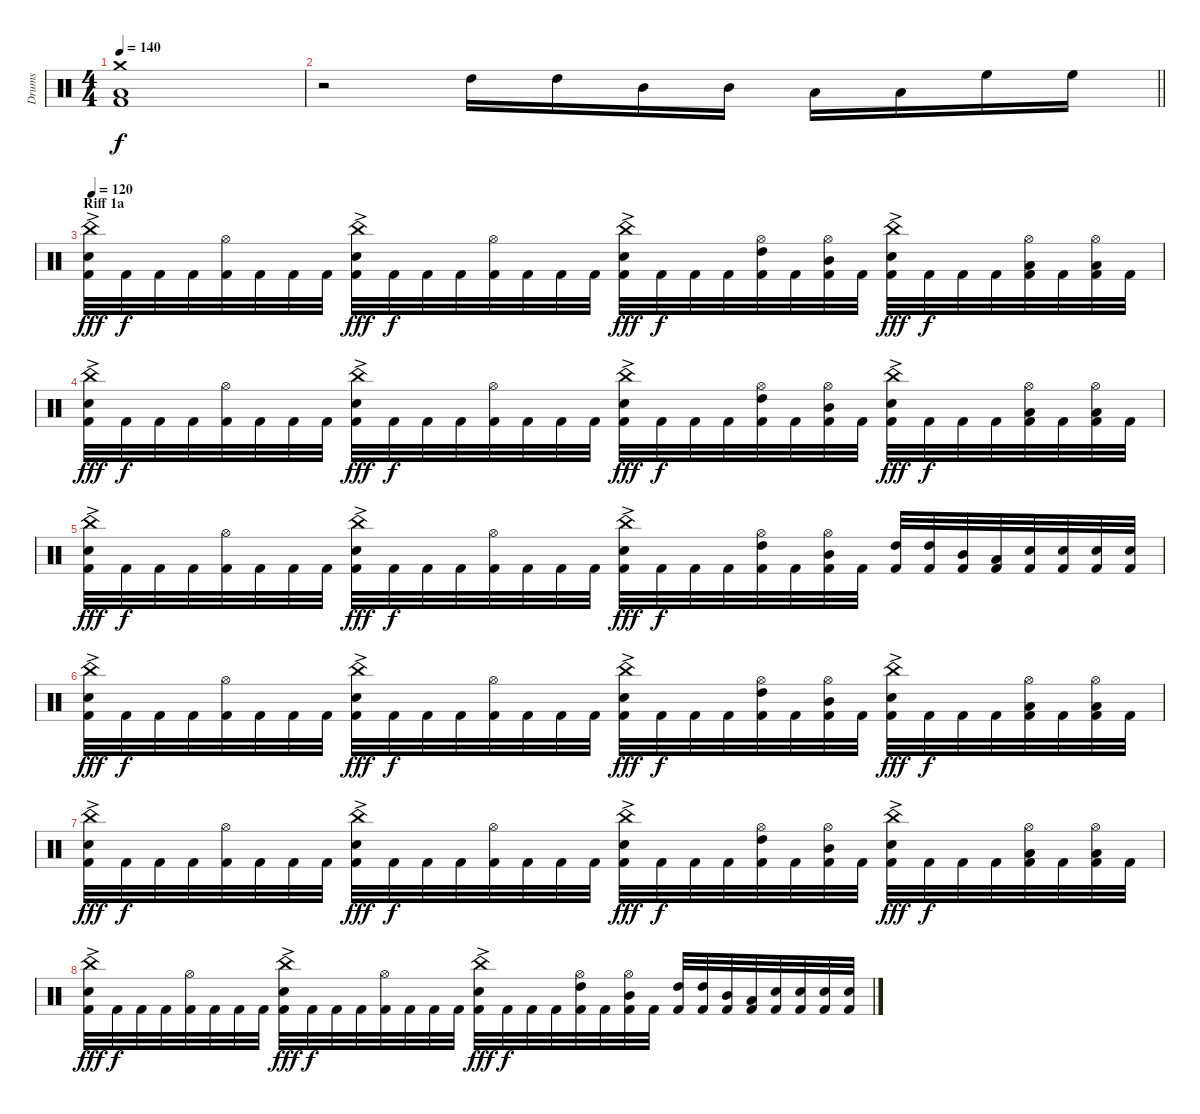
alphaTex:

\track ("Drums" "Drums") {instrument percussion}
\staff {score}
\articulation defaults
\ts (4 4)
\tempo 140
\clef neutral
\ks c
("Crash medium (hit)" "Low Tom (hit)" "Kick (hit) 2").1{dy f} |
\barLineRight lightlight
r.2 "High Tom (hit)".16 "High Tom (hit)".16 "Mid Tom (hit)".16 "Mid Tom (hit)".16 "Low Tom (hit)".16 "Low Tom (hit)".16 "High Floor Tom (hit)".16 "High Floor Tom (hit)".16 |
\section ("" "Riff 1a")
\tempo 120
("China (hit)"{ac} "Electric Snare (hit)" "Kick (hit) 2").32{dy fff} "Kick (hit) 2".32{dy f} "Kick (hit) 2".32 "Kick (hit) 2".32 ("Hi-Hat (open)" "Kick (hit) 2").32 "Kick (hit) 2".32 "Kick (hit) 2".32 "Kick (hit) 2".32 ("China (hit)"{ac} "Electric Snare (hit)" "Kick (hit) 2").32{dy fff} "Kick (hit) 2".32{dy f} "Kick (hit) 2".32 "Kick (hit) 2".32 ("Hi-Hat (open)" "Kick (hit) 2").32 "Kick (hit) 2".32 "Kick (hit) 2".32 "Kick (hit) 2".32 ("China (hit)"{ac} "Electric Snare (hit)" "Kick (hit) 2").32{dy fff} "Kick (hit) 2".32{dy f} "Kick (hit) 2".32 "Kick (hit) 2".32 ("Hi-Hat (open)" "High Tom (hit)" "Kick (hit) 2").32 "Kick (hit) 2".32 ("Hi-Hat (open)" "Mid Tom (hit)" "Kick (hit) 2").32 "Kick (hit) 2".32 ("China (hit)"{ac} "Electric Snare (hit)" "Kick (hit) 2").32{dy fff} "Kick (hit) 2".32{dy f} "Kick (hit) 2".32 "Kick (hit) 2".32 ("Hi-Hat (open)" "Low Tom (hit)" "Kick (hit) 2").32 "Kick (hit) 2".32 ("Hi-Hat (open)" "Low Tom (hit)" "Kick (hit) 2").32 "Kick (hit) 2".32 |
("China (hit)"{ac} "Electric Snare (hit)" "Kick (hit) 2").32{dy fff} "Kick (hit) 2".32{dy f} "Kick (hit) 2".32 "Kick (hit) 2".32 ("Hi-Hat (open)" "Kick (hit) 2").32 "Kick (hit) 2".32 "Kick (hit) 2".32 "Kick (hit) 2".32 ("China (hit)"{ac} "Electric Snare (hit)" "Kick (hit) 2").32{dy fff} "Kick (hit) 2".32{dy f} "Kick (hit) 2".32 "Kick (hit) 2".32 ("Hi-Hat (open)" "Kick (hit) 2").32 "Kick (hit) 2".32 "Kick (hit) 2".32 "Kick (hit) 2".32 ("China (hit)"{ac} "Electric Snare (hit)" "Kick (hit) 2").32{dy fff} "Kick (hit) 2".32{dy f} "Kick (hit) 2".32 "Kick (hit) 2".32 ("Hi-Hat (open)" "High Tom (hit)" "Kick (hit) 2").32 "Kick (hit) 2".32 ("Hi-Hat (open)" "Mid Tom (hit)" "Kick (hit) 2").32 "Kick (hit) 2".32 ("China (hit)"{ac} "Electric Snare (hit)" "Kick (hit) 2").32{dy fff} "Kick (hit) 2".32{dy f} "Kick (hit) 2".32 "Kick (hit) 2".32 ("Hi-Hat (open)" "Low Tom (hit)" "Kick (hit) 2").32 "Kick (hit) 2".32 ("Hi-Hat (open)" "Low Tom (hit)" "Kick (hit) 2").32 "Kick (hit) 2".32 |
("China (hit)"{ac} "Electric Snare (hit)" "Kick (hit) 2").32{dy fff} "Kick (hit) 2".32{dy f} "Kick (hit) 2".32 "Kick (hit) 2".32 ("Hi-Hat (open)" "Kick (hit) 2").32 "Kick (hit) 2".32 "Kick (hit) 2".32 "Kick (hit) 2".32 ("China (hit)"{ac} "Electric Snare (hit)" "Kick (hit) 2").32{dy fff} "Kick (hit) 2".32{dy f} "Kick (hit) 2".32 "Kick (hit) 2".32 ("Hi-Hat (open)" "Kick (hit) 2").32 "Kick (hit) 2".32 "Kick (hit) 2".32 "Kick (hit) 2".32 ("China (hit)"{ac} "Electric Snare (hit)" "Kick (hit) 2").32{dy fff} "Kick (hit) 2".32{dy f} "Kick (hit) 2".32 "Kick (hit) 2".32 ("Hi-Hat (open)" "High Tom (hit)" "Kick (hit) 2").32 "Kick (hit) 2".32 ("Hi-Hat (open)" "Mid Tom (hit)" "Kick (hit) 2").32 "Kick (hit) 2".32 ("High Tom (hit)" "Kick (hit) 2").32 ("High Tom (hit)" "Kick (hit) 2").32 ("Mid Tom (hit)" "Kick (hit) 2").32 ("Low Tom (hit)" "Kick (hit) 2").32 ("Electric Snare (hit)" "Kick (hit) 2").32 ("Electric Snare (hit)" "Kick (hit) 2").32 ("Electric Snare (hit)" "Kick (hit) 2").32 ("Electric Snare (hit)" "Kick (hit) 2").32 |
("China (hit)"{ac} "Electric Snare (hit)" "Kick (hit) 2").32{dy fff} "Kick (hit) 2".32{dy f} "Kick (hit) 2".32 "Kick (hit) 2".32 ("Hi-Hat (open)" "Kick (hit) 2").32 "Kick (hit) 2".32 "Kick (hit) 2".32 "Kick (hit) 2".32 ("China (hit)"{ac} "Electric Snare (hit)" "Kick (hit) 2").32{dy fff} "Kick (hit) 2".32{dy f} "Kick (hit) 2".32 "Kick (hit) 2".32 ("Hi-Hat (open)" "Kick (hit) 2").32 "Kick (hit) 2".32 "Kick (hit) 2".32 "Kick (hit) 2".32 ("China (hit)"{ac} "Electric Snare (hit)" "Kick (hit) 2").32{dy fff} "Kick (hit) 2".32{dy f} "Kick (hit) 2".32 "Kick (hit) 2".32 ("Hi-Hat (open)" "High Tom (hit)" "Kick (hit) 2").32 "Kick (hit) 2".32 ("Hi-Hat (open)" "Mid Tom (hit)" "Kick (hit) 2").32 "Kick (hit) 2".32 ("China (hit)"{ac} "Electric Snare (hit)" "Kick (hit) 2").32{dy fff} "Kick (hit) 2".32{dy f} "Kick (hit) 2".32 "Kick (hit) 2".32 ("Hi-Hat (open)" "Low Tom (hit)" "Kick (hit) 2").32 "Kick (hit) 2".32 ("Hi-Hat (open)" "Low Tom (hit)" "Kick (hit) 2").32 "Kick (hit) 2".32 |
("China (hit)"{ac} "Electric Snare (hit)" "Kick (hit) 2").32{dy fff} "Kick (hit) 2".32{dy f} "Kick (hit) 2".32 "Kick (hit) 2".32 ("Hi-Hat (open)" "Kick (hit) 2").32 "Kick (hit) 2".32 "Kick (hit) 2".32 "Kick (hit) 2".32 ("China (hit)"{ac} "Electric Snare (hit)" "Kick (hit) 2").32{dy fff} "Kick (hit) 2".32{dy f} "Kick (hit) 2".32 "Kick (hit) 2".32 ("Hi-Hat (open)" "Kick (hit) 2").32 "Kick (hit) 2".32 "Kick (hit) 2".32 "Kick (hit) 2".32 ("China (hit)"{ac} "Electric Snare (hit)" "Kick (hit) 2").32{dy fff} "Kick (hit) 2".32{dy f} "Kick (hit) 2".32 "Kick (hit) 2".32 ("Hi-Hat (open)" "High Tom (hit)" "Kick (hit) 2").32 "Kick (hit) 2".32 ("Hi-Hat (open)" "Mid Tom (hit)" "Kick (hit) 2").32 "Kick (hit) 2".32 ("China (hit)"{ac} "Electric Snare (hit)" "Kick (hit) 2").32{dy fff} "Kick (hit) 2".32{dy f} "Kick (hit) 2".32 "Kick (hit) 2".32 ("Hi-Hat (open)" "Low Tom (hit)" "Kick (hit) 2").32 "Kick (hit) 2".32 ("Hi-Hat (open)" "Low Tom (hit)" "Kick (hit) 2").32 "Kick (hit) 2".32 |
("China (hit)"{ac} "Electric Snare (hit)" "Kick (hit) 2").32{dy fff} "Kick (hit) 2".32{dy f} "Kick (hit) 2".32 "Kick (hit) 2".32 ("Hi-Hat (open)" "Kick (hit) 2").32 "Kick (hit) 2".32 "Kick (hit) 2".32 "Kick (hit) 2".32 ("China (hit)"{ac} "Electric Snare (hit)" "Kick (hit) 2").32{dy fff} "Kick (hit) 2".32{dy f} "Kick (hit) 2".32 "Kick (hit) 2".32 ("Hi-Hat (open)" "Kick (hit) 2").32 "Kick (hit) 2".32 "Kick (hit) 2".32 "Kick (hit) 2".32 ("China (hit)"{ac} "Electric Snare (hit)" "Kick (hit) 2").32{dy fff} "Kick (hit) 2".32{dy f} "Kick (hit) 2".32 "Kick (hit) 2".32 ("Hi-Hat (open)" "High Tom (hit)" "Kick (hit) 2").32 "Kick (hit) 2".32 ("Hi-Hat (open)" "Mid Tom (hit)" "Kick (hit) 2").32 "Kick (hit) 2".32 ("High Tom (hit)" "Kick (hit) 2").32 ("High Tom (hit)" "Kick (hit) 2").32 ("Mid Tom (hit)" "Kick (hit) 2").32 ("Low Tom (hit)" "Kick (hit) 2").32 ("Electric Snare (hit)" "Kick (hit) 2").32 ("Electric Snare (hit)" "Kick (hit) 2").32 ("Electric Snare (hit)" "Kick (hit) 2").32 ("Electric Snare (hit)" "Kick (hit) 2").32
